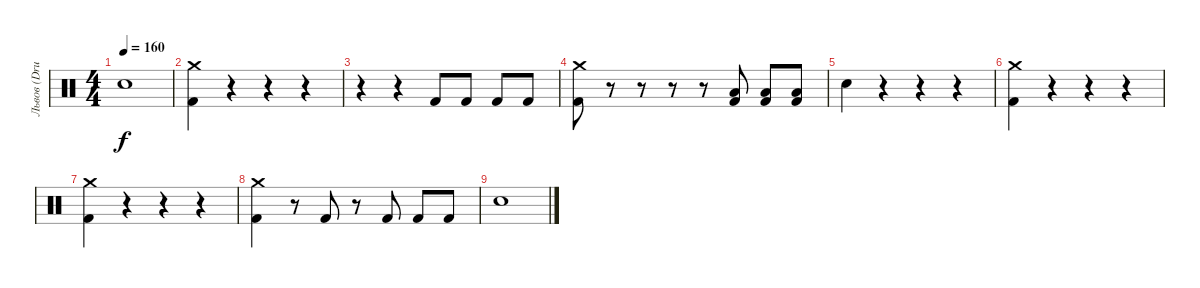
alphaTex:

\track ("Львов (Drums)" "Львов (Dru") {instrument percussion}
\staff {score}
\articulation defaults
\ts (4 4)
\tempo 160
\clef neutral
\ks c "Snare (hit) 2".1{dy f}
|
("Kick (hit) 2" "Crash medium (hit)").4 r.4 r.4 r.4 |
r.4 r.4 "Kick (hit) 2".8 "Kick (hit) 2".8 "Kick (hit) 2".8 "Kick (hit) 2".8 |
("Kick (hit) 2" "Crash medium (hit)").8 r.8 r.8 r.8 r.8 ("Kick (hit) 2" "Low Floor Tom (hit)").8 ("Kick (hit) 2" "Low Floor Tom (hit)").8 ("Kick (hit) 2" "Low Floor Tom (hit)").8 |
"Snare (hit) 2".4 r.4 r.4 r.4 |
("Kick (hit) 2" "Crash medium (hit)").4 r.4 r.4 r.4 |
("Kick (hit) 2" "Crash medium (hit)").4 r.4 r.4 r.4 |
("Kick (hit) 2" "Crash medium (hit)").4 r.8 "Kick (hit) 2".8 r.8 "Kick (hit) 2".8 "Kick (hit) 2".8 "Kick (hit) 2".8 |
"Snare (hit) 2".1
